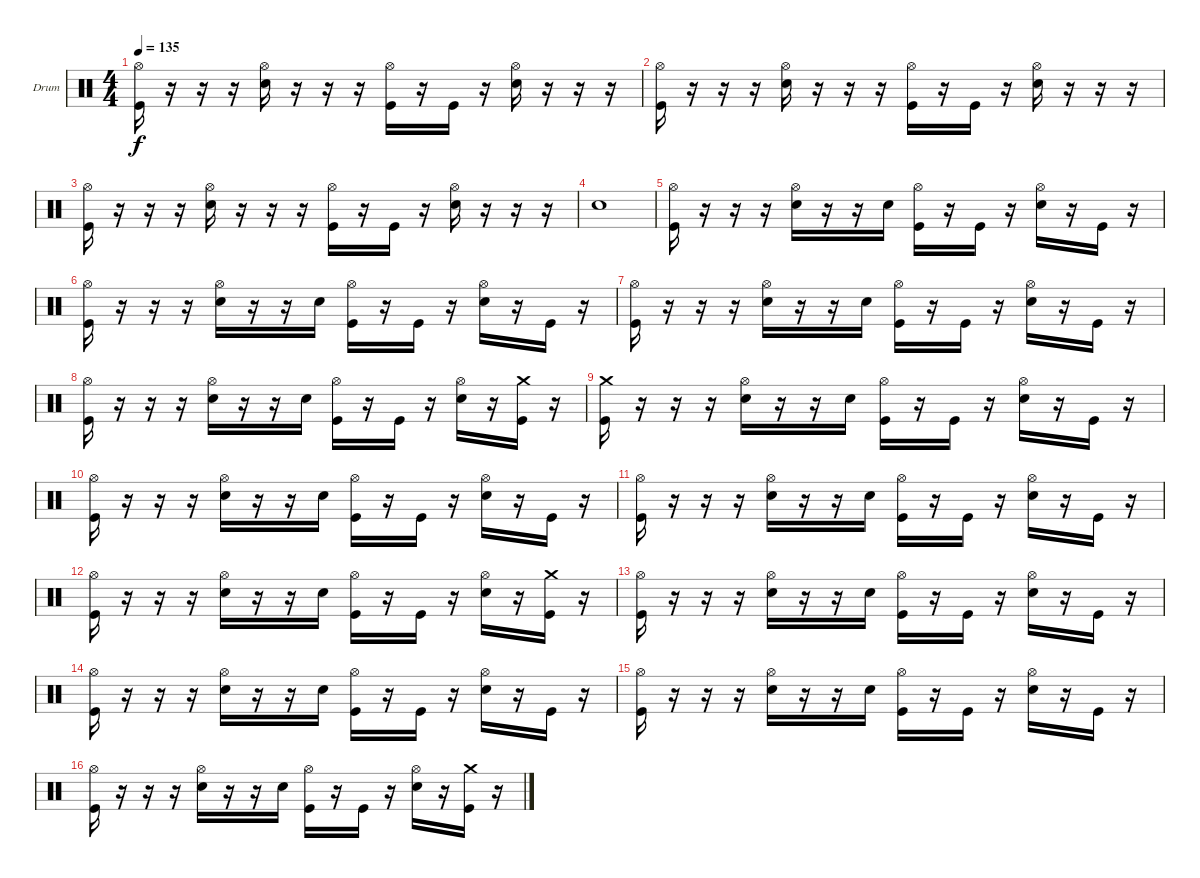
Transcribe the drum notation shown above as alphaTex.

\defaultSystemsLayout 4
\bracketExtendMode groupsimilarinstruments
\firstSystemTrackNameOrientation horizontal
\otherSystemsTrackNameOrientation horizontal
\track ("Drum" "Drum") {instrument percussion}
\staff {score}
\articulation defaults
\ts (4 4)
\tempo 135
\clef neutral
\ks c
("Hi-Hat (open)" "Kick (hit)").16{dy f} r.16 r.16 r.16 ("Hi-Hat (open)" "Snare (hit) 2").16 r.16 r.16 r.16 ("Hi-Hat (open)" "Kick (hit)").16 r.16 "Kick (hit)".16 r.16 ("Hi-Hat (open)" "Snare (hit) 2").16 r.16 r.16 r.16 |
("Hi-Hat (open)" "Kick (hit)").16 r.16 r.16 r.16 ("Hi-Hat (open)" "Snare (hit) 2").16 r.16 r.16 r.16 ("Hi-Hat (open)" "Kick (hit)").16 r.16 "Kick (hit)".16 r.16 ("Hi-Hat (open)" "Snare (hit) 2").16 r.16 r.16 r.16 |
("Hi-Hat (open)" "Kick (hit)").16 r.16 r.16 r.16 ("Hi-Hat (open)" "Snare (hit) 2").16 r.16 r.16 r.16 ("Hi-Hat (open)" "Kick (hit)").16 r.16 "Kick (hit)".16 r.16 ("Hi-Hat (open)" "Snare (hit) 2").16 r.16 r.16 r.16 |
"Snare (hit) 2".1 |
("Hi-Hat (open)" "Kick (hit)").16 r.16 r.16 r.16 ("Hi-Hat (open)" "Snare (hit) 2").16 r.16 r.16 "Snare (hit) 2".16 ("Hi-Hat (open)" "Kick (hit)").16 r.16 "Kick (hit)".16 r.16 ("Hi-Hat (open)" "Snare (hit) 2").16 r.16 "Kick (hit)".16 r.16 |
("Hi-Hat (open)" "Kick (hit)").16 r.16 r.16 r.16 ("Hi-Hat (open)" "Snare (hit) 2").16 r.16 r.16 "Snare (hit) 2".16 ("Hi-Hat (open)" "Kick (hit)").16 r.16 "Kick (hit)".16 r.16 ("Hi-Hat (open)" "Snare (hit) 2").16 r.16 "Kick (hit)".16 r.16 |
("Hi-Hat (open)" "Kick (hit)").16 r.16 r.16 r.16 ("Hi-Hat (open)" "Snare (hit) 2").16 r.16 r.16 "Snare (hit) 2".16 ("Hi-Hat (open)" "Kick (hit)").16 r.16 "Kick (hit)".16 r.16 ("Hi-Hat (open)" "Snare (hit) 2").16 r.16 "Kick (hit)".16 r.16 |
("Hi-Hat (open)" "Kick (hit)").16 r.16 r.16 r.16 ("Hi-Hat (open)" "Snare (hit) 2").16 r.16 r.16 "Snare (hit) 2".16 ("Hi-Hat (open)" "Kick (hit)").16 r.16 "Kick (hit)".16 r.16 ("Hi-Hat (open)" "Snare (hit) 2").16 r.16 ("Crash medium (hit)" "Kick (hit)").16 r.16 |
("Crash medium (hit)" "Kick (hit)").16 r.16 r.16 r.16 ("Hi-Hat (open)" "Snare (hit) 2").16 r.16 r.16 "Snare (hit) 2".16 ("Hi-Hat (open)" "Kick (hit)").16 r.16 "Kick (hit)".16 r.16 ("Hi-Hat (open)" "Snare (hit) 2").16 r.16 "Kick (hit)".16 r.16 |
("Hi-Hat (open)" "Kick (hit)").16 r.16 r.16 r.16 ("Hi-Hat (open)" "Snare (hit) 2").16 r.16 r.16 "Snare (hit) 2".16 ("Hi-Hat (open)" "Kick (hit)").16 r.16 "Kick (hit)".16 r.16 ("Hi-Hat (open)" "Snare (hit) 2").16 r.16 "Kick (hit)".16 r.16 |
("Hi-Hat (open)" "Kick (hit)").16 r.16 r.16 r.16 ("Hi-Hat (open)" "Snare (hit) 2").16 r.16 r.16 "Snare (hit) 2".16 ("Hi-Hat (open)" "Kick (hit)").16 r.16 "Kick (hit)".16 r.16 ("Hi-Hat (open)" "Snare (hit) 2").16 r.16 "Kick (hit)".16 r.16 |
("Hi-Hat (open)" "Kick (hit)").16 r.16 r.16 r.16 ("Hi-Hat (open)" "Snare (hit) 2").16 r.16 r.16 "Snare (hit) 2".16 ("Hi-Hat (open)" "Kick (hit)").16 r.16 "Kick (hit)".16 r.16 ("Hi-Hat (open)" "Snare (hit) 2").16 r.16 ("Crash medium (hit)" "Kick (hit)").16 r.16 |
("Hi-Hat (open)" "Kick (hit)").16 r.16 r.16 r.16 ("Hi-Hat (open)" "Snare (hit) 2").16 r.16 r.16 "Snare (hit) 2".16 ("Hi-Hat (open)" "Kick (hit)").16 r.16 "Kick (hit)".16 r.16 ("Hi-Hat (open)" "Snare (hit) 2").16 r.16 "Kick (hit)".16 r.16 |
("Hi-Hat (open)" "Kick (hit)").16 r.16 r.16 r.16 ("Hi-Hat (open)" "Snare (hit) 2").16 r.16 r.16 "Snare (hit) 2".16 ("Hi-Hat (open)" "Kick (hit)").16 r.16 "Kick (hit)".16 r.16 ("Hi-Hat (open)" "Snare (hit) 2").16 r.16 "Kick (hit)".16 r.16 |
("Hi-Hat (open)" "Kick (hit)").16 r.16 r.16 r.16 ("Hi-Hat (open)" "Snare (hit) 2").16 r.16 r.16 "Snare (hit) 2".16 ("Hi-Hat (open)" "Kick (hit)").16 r.16 "Kick (hit)".16 r.16 ("Hi-Hat (open)" "Snare (hit) 2").16 r.16 "Kick (hit)".16 r.16 |
("Hi-Hat (open)" "Kick (hit)").16 r.16 r.16 r.16 ("Hi-Hat (open)" "Snare (hit) 2").16 r.16 r.16 "Snare (hit) 2".16 ("Hi-Hat (open)" "Kick (hit)").16 r.16 "Kick (hit)".16 r.16 ("Hi-Hat (open)" "Snare (hit) 2").16 r.16 ("Crash medium (hit)" "Kick (hit)").16 r.16
